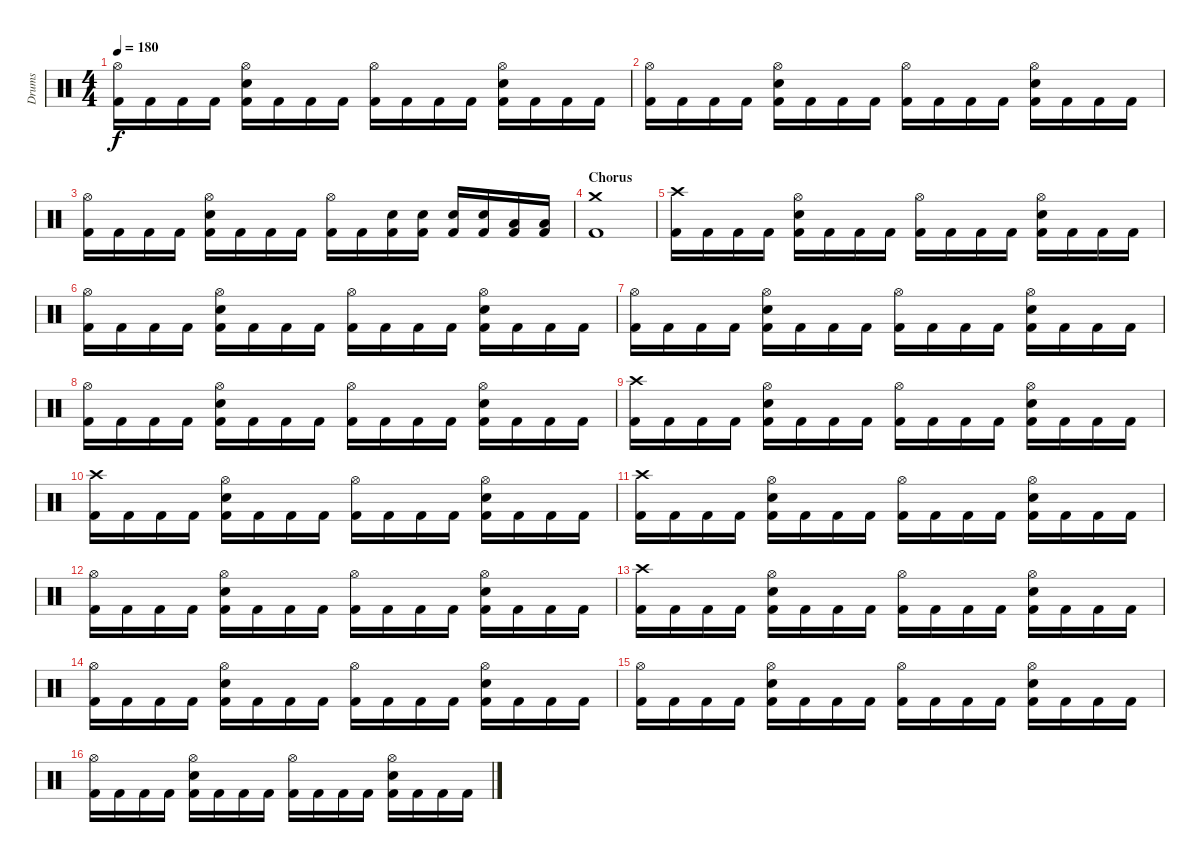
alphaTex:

\track ("Drums" "Drums") {instrument percussion}
\staff {score}
\articulation defaults
\ts (4 4)
\tempo 180
\clef neutral
\ks c
("Hi-Hat (open)" "Kick (hit) 2").16{dy f} "Kick (hit) 2".16 "Kick (hit) 2".16 "Kick (hit) 2".16 ("Hi-Hat (open)" "Electric Snare (hit)" "Kick (hit) 2").16 "Kick (hit) 2".16 "Kick (hit) 2".16 "Kick (hit) 2".16 ("Hi-Hat (open)" "Kick (hit) 2").16 "Kick (hit) 2".16 "Kick (hit) 2".16 "Kick (hit) 2".16 ("Hi-Hat (open)" "Electric Snare (hit)" "Kick (hit) 2").16 "Kick (hit) 2".16 "Kick (hit) 2".16 "Kick (hit) 2".16 |
("Hi-Hat (open)" "Kick (hit) 2").16 "Kick (hit) 2".16 "Kick (hit) 2".16 "Kick (hit) 2".16 ("Hi-Hat (open)" "Electric Snare (hit)" "Kick (hit) 2").16 "Kick (hit) 2".16 "Kick (hit) 2".16 "Kick (hit) 2".16 ("Hi-Hat (open)" "Kick (hit) 2").16 "Kick (hit) 2".16 "Kick (hit) 2".16 "Kick (hit) 2".16 ("Hi-Hat (open)" "Electric Snare (hit)" "Kick (hit) 2").16 "Kick (hit) 2".16 "Kick (hit) 2".16 "Kick (hit) 2".16 |
("Hi-Hat (open)" "Kick (hit) 2").16 "Kick (hit) 2".16 "Kick (hit) 2".16 "Kick (hit) 2".16 ("Hi-Hat (open)" "Electric Snare (hit)" "Kick (hit) 2").16 "Kick (hit) 2".16 "Kick (hit) 2".16 "Kick (hit) 2".16 ("Hi-Hat (open)" "Kick (hit) 2").16 "Kick (hit) 2".16 ("Electric Snare (hit)" "Kick (hit) 2").16 ("Electric Snare (hit)" "Kick (hit) 2").16 ("Electric Snare (hit)" "Kick (hit) 2").16 ("Electric Snare (hit)" "Kick (hit) 2").16 ("Low Tom (hit)" "Kick (hit) 2").16 ("Low Tom (hit)" "Kick (hit) 2").16 |
\section ("" "Chorus")
("Crash medium (hit)" "Kick (hit) 2").1 |
("Crash high (hit)" "Kick (hit) 2").16 "Kick (hit) 2".16 "Kick (hit) 2".16 "Kick (hit) 2".16 ("Hi-Hat (open)" "Electric Snare (hit)" "Kick (hit) 2").16 "Kick (hit) 2".16 "Kick (hit) 2".16 "Kick (hit) 2".16 ("Hi-Hat (open)" "Kick (hit) 2").16 "Kick (hit) 2".16 "Kick (hit) 2".16 "Kick (hit) 2".16 ("Hi-Hat (open)" "Electric Snare (hit)" "Kick (hit) 2").16 "Kick (hit) 2".16 "Kick (hit) 2".16 "Kick (hit) 2".16 |
("Hi-Hat (open)" "Kick (hit) 2").16 "Kick (hit) 2".16 "Kick (hit) 2".16 "Kick (hit) 2".16 ("Hi-Hat (open)" "Electric Snare (hit)" "Kick (hit) 2").16 "Kick (hit) 2".16 "Kick (hit) 2".16 "Kick (hit) 2".16 ("Hi-Hat (open)" "Kick (hit) 2").16 "Kick (hit) 2".16 "Kick (hit) 2".16 "Kick (hit) 2".16 ("Hi-Hat (open)" "Electric Snare (hit)" "Kick (hit) 2").16 "Kick (hit) 2".16 "Kick (hit) 2".16 "Kick (hit) 2".16 |
("Hi-Hat (open)" "Kick (hit) 2").16 "Kick (hit) 2".16 "Kick (hit) 2".16 "Kick (hit) 2".16 ("Hi-Hat (open)" "Electric Snare (hit)" "Kick (hit) 2").16 "Kick (hit) 2".16 "Kick (hit) 2".16 "Kick (hit) 2".16 ("Hi-Hat (open)" "Kick (hit) 2").16 "Kick (hit) 2".16 "Kick (hit) 2".16 "Kick (hit) 2".16 ("Hi-Hat (open)" "Electric Snare (hit)" "Kick (hit) 2").16 "Kick (hit) 2".16 "Kick (hit) 2".16 "Kick (hit) 2".16 |
("Hi-Hat (open)" "Kick (hit) 2").16 "Kick (hit) 2".16 "Kick (hit) 2".16 "Kick (hit) 2".16 ("Hi-Hat (open)" "Electric Snare (hit)" "Kick (hit) 2").16 "Kick (hit) 2".16 "Kick (hit) 2".16 "Kick (hit) 2".16 ("Hi-Hat (open)" "Kick (hit) 2").16 "Kick (hit) 2".16 "Kick (hit) 2".16 "Kick (hit) 2".16 ("Hi-Hat (open)" "Electric Snare (hit)" "Kick (hit) 2").16 "Kick (hit) 2".16 "Kick (hit) 2".16 "Kick (hit) 2".16 |
("Crash high (hit)" "Kick (hit) 2").16 "Kick (hit) 2".16 "Kick (hit) 2".16 "Kick (hit) 2".16 ("Hi-Hat (open)" "Electric Snare (hit)" "Kick (hit) 2").16 "Kick (hit) 2".16 "Kick (hit) 2".16 "Kick (hit) 2".16 ("Hi-Hat (open)" "Kick (hit) 2").16 "Kick (hit) 2".16 "Kick (hit) 2".16 "Kick (hit) 2".16 ("Hi-Hat (open)" "Electric Snare (hit)" "Kick (hit) 2").16 "Kick (hit) 2".16 "Kick (hit) 2".16 "Kick (hit) 2".16 |
("Crash high (hit)" "Kick (hit) 2").16 "Kick (hit) 2".16 "Kick (hit) 2".16 "Kick (hit) 2".16 ("Hi-Hat (open)" "Electric Snare (hit)" "Kick (hit) 2").16 "Kick (hit) 2".16 "Kick (hit) 2".16 "Kick (hit) 2".16 ("Hi-Hat (open)" "Kick (hit) 2").16 "Kick (hit) 2".16 "Kick (hit) 2".16 "Kick (hit) 2".16 ("Hi-Hat (open)" "Electric Snare (hit)" "Kick (hit) 2").16 "Kick (hit) 2".16 "Kick (hit) 2".16 "Kick (hit) 2".16 |
("Crash high (hit)" "Kick (hit) 2").16 "Kick (hit) 2".16 "Kick (hit) 2".16 "Kick (hit) 2".16 ("Hi-Hat (open)" "Electric Snare (hit)" "Kick (hit) 2").16 "Kick (hit) 2".16 "Kick (hit) 2".16 "Kick (hit) 2".16 ("Hi-Hat (open)" "Kick (hit) 2").16 "Kick (hit) 2".16 "Kick (hit) 2".16 "Kick (hit) 2".16 ("Hi-Hat (open)" "Electric Snare (hit)" "Kick (hit) 2").16 "Kick (hit) 2".16 "Kick (hit) 2".16 "Kick (hit) 2".16 |
("Hi-Hat (open)" "Kick (hit) 2").16 "Kick (hit) 2".16 "Kick (hit) 2".16 "Kick (hit) 2".16 ("Hi-Hat (open)" "Electric Snare (hit)" "Kick (hit) 2").16 "Kick (hit) 2".16 "Kick (hit) 2".16 "Kick (hit) 2".16 ("Hi-Hat (open)" "Kick (hit) 2").16 "Kick (hit) 2".16 "Kick (hit) 2".16 "Kick (hit) 2".16 ("Hi-Hat (open)" "Electric Snare (hit)" "Kick (hit) 2").16 "Kick (hit) 2".16 "Kick (hit) 2".16 "Kick (hit) 2".16 |
("Crash high (hit)" "Kick (hit) 2").16 "Kick (hit) 2".16 "Kick (hit) 2".16 "Kick (hit) 2".16 ("Hi-Hat (open)" "Electric Snare (hit)" "Kick (hit) 2").16 "Kick (hit) 2".16 "Kick (hit) 2".16 "Kick (hit) 2".16 ("Hi-Hat (open)" "Kick (hit) 2").16 "Kick (hit) 2".16 "Kick (hit) 2".16 "Kick (hit) 2".16 ("Hi-Hat (open)" "Electric Snare (hit)" "Kick (hit) 2").16 "Kick (hit) 2".16 "Kick (hit) 2".16 "Kick (hit) 2".16 |
("Hi-Hat (open)" "Kick (hit) 2").16 "Kick (hit) 2".16 "Kick (hit) 2".16 "Kick (hit) 2".16 ("Hi-Hat (open)" "Electric Snare (hit)" "Kick (hit) 2").16 "Kick (hit) 2".16 "Kick (hit) 2".16 "Kick (hit) 2".16 ("Hi-Hat (open)" "Kick (hit) 2").16 "Kick (hit) 2".16 "Kick (hit) 2".16 "Kick (hit) 2".16 ("Hi-Hat (open)" "Electric Snare (hit)" "Kick (hit) 2").16 "Kick (hit) 2".16 "Kick (hit) 2".16 "Kick (hit) 2".16 |
("Hi-Hat (open)" "Kick (hit) 2").16 "Kick (hit) 2".16 "Kick (hit) 2".16 "Kick (hit) 2".16 ("Hi-Hat (open)" "Electric Snare (hit)" "Kick (hit) 2").16 "Kick (hit) 2".16 "Kick (hit) 2".16 "Kick (hit) 2".16 ("Hi-Hat (open)" "Kick (hit) 2").16 "Kick (hit) 2".16 "Kick (hit) 2".16 "Kick (hit) 2".16 ("Hi-Hat (open)" "Electric Snare (hit)" "Kick (hit) 2").16 "Kick (hit) 2".16 "Kick (hit) 2".16 "Kick (hit) 2".16 |
("Hi-Hat (open)" "Kick (hit) 2").16 "Kick (hit) 2".16 "Kick (hit) 2".16 "Kick (hit) 2".16 ("Hi-Hat (open)" "Electric Snare (hit)" "Kick (hit) 2").16 "Kick (hit) 2".16 "Kick (hit) 2".16 "Kick (hit) 2".16 ("Hi-Hat (open)" "Kick (hit) 2").16 "Kick (hit) 2".16 "Kick (hit) 2".16 "Kick (hit) 2".16 ("Hi-Hat (open)" "Electric Snare (hit)" "Kick (hit) 2").16 "Kick (hit) 2".16 "Kick (hit) 2".16 "Kick (hit) 2".16
